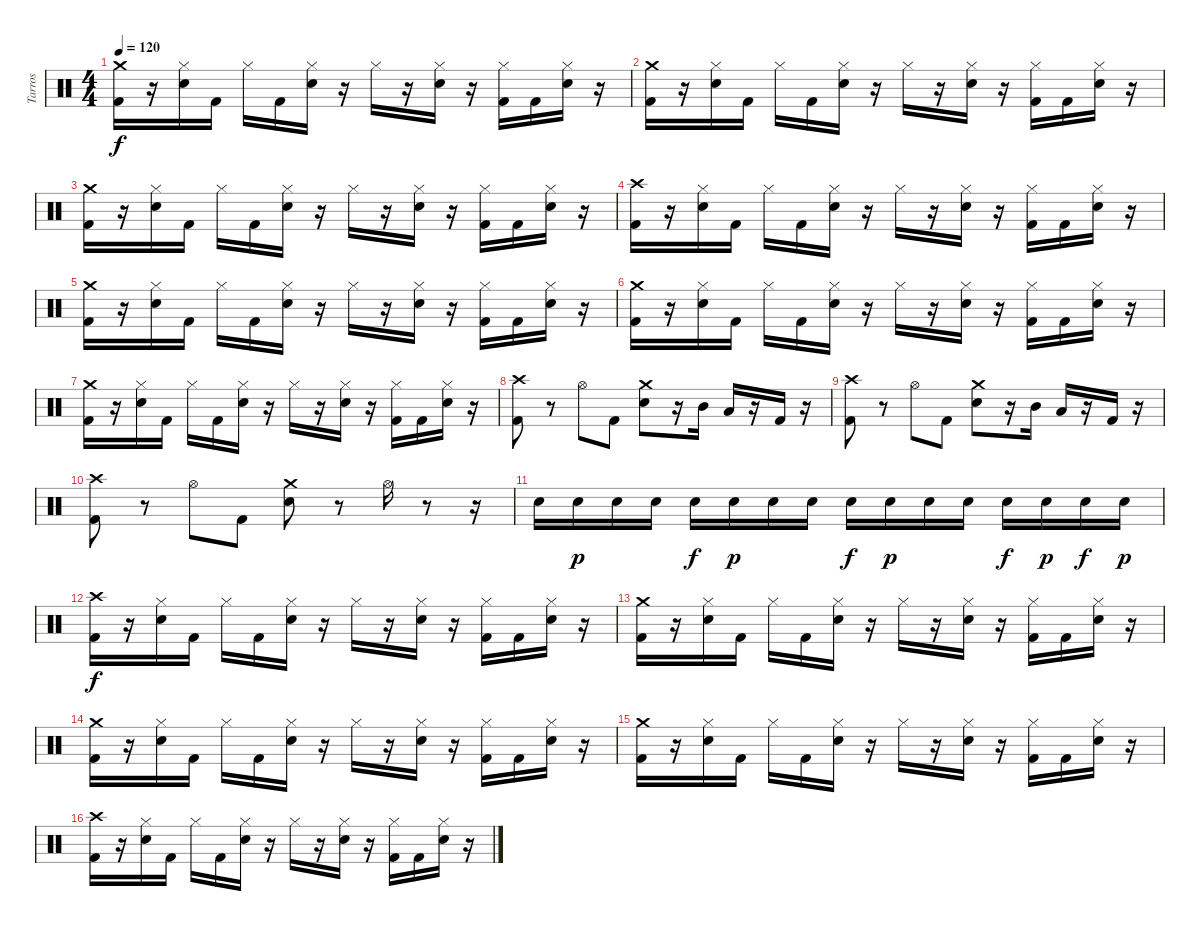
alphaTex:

\track ("Tarros" "Tarros") {instrument percussion}
\staff {score}
\articulation defaults
\ts (4 4)
\tempo 120
\clef neutral
\ks c
("Crash medium (hit)" "Kick (hit) 2").16{dy f} r.16 ("Hi-Hat (closed)" "Electric Snare (hit)").16 "Kick (hit) 2".16 "Hi-Hat (closed)".16 "Kick (hit) 2".16 ("Hi-Hat (closed)" "Electric Snare (hit)").16 r.16 "Hi-Hat (closed)".16 r.16 ("Hi-Hat (closed)" "Electric Snare (hit)").16 r.16 ("Hi-Hat (closed)" "Kick (hit) 2").16 "Kick (hit) 2".16 ("Hi-Hat (closed)" "Electric Snare (hit)").16 r.16 |
("Crash medium (hit)" "Kick (hit) 2").16 r.16 ("Hi-Hat (closed)" "Electric Snare (hit)").16 "Kick (hit) 2".16 "Hi-Hat (closed)".16 "Kick (hit) 2".16 ("Hi-Hat (closed)" "Electric Snare (hit)").16 r.16 "Hi-Hat (closed)".16 r.16 ("Hi-Hat (closed)" "Electric Snare (hit)").16 r.16 ("Hi-Hat (closed)" "Kick (hit) 2").16 "Kick (hit) 2".16 ("Hi-Hat (closed)" "Electric Snare (hit)").16 r.16 |
("Crash medium (hit)" "Kick (hit) 2").16 r.16 ("Hi-Hat (closed)" "Electric Snare (hit)").16 "Kick (hit) 2".16 "Hi-Hat (closed)".16 "Kick (hit) 2".16 ("Hi-Hat (closed)" "Electric Snare (hit)").16 r.16 "Hi-Hat (closed)".16 r.16 ("Hi-Hat (closed)" "Electric Snare (hit)").16 r.16 ("Hi-Hat (closed)" "Kick (hit) 2").16 "Kick (hit) 2".16 ("Hi-Hat (closed)" "Electric Snare (hit)").16 r.16 |
("Crash high (hit)" "Kick (hit) 2").16 r.16 ("Hi-Hat (closed)" "Electric Snare (hit)").16 "Kick (hit) 2".16 "Hi-Hat (closed)".16 "Kick (hit) 2".16 ("Hi-Hat (closed)" "Electric Snare (hit)").16 r.16 "Hi-Hat (closed)".16 r.16 ("Hi-Hat (closed)" "Electric Snare (hit)").16 r.16 ("Hi-Hat (closed)" "Kick (hit) 2").16 "Kick (hit) 2".16 ("Hi-Hat (closed)" "Electric Snare (hit)").16 r.16 |
("Crash medium (hit)" "Kick (hit) 2").16 r.16 ("Hi-Hat (closed)" "Electric Snare (hit)").16 "Kick (hit) 2".16 "Hi-Hat (closed)".16 "Kick (hit) 2".16 ("Hi-Hat (closed)" "Electric Snare (hit)").16 r.16 "Hi-Hat (closed)".16 r.16 ("Hi-Hat (closed)" "Electric Snare (hit)").16 r.16 ("Hi-Hat (closed)" "Kick (hit) 2").16 "Kick (hit) 2".16 ("Hi-Hat (closed)" "Electric Snare (hit)").16 r.16 |
("Crash medium (hit)" "Kick (hit) 2").16 r.16 ("Hi-Hat (closed)" "Electric Snare (hit)").16 "Kick (hit) 2".16 "Hi-Hat (closed)".16 "Kick (hit) 2".16 ("Hi-Hat (closed)" "Electric Snare (hit)").16 r.16 "Hi-Hat (closed)".16 r.16 ("Hi-Hat (closed)" "Electric Snare (hit)").16 r.16 ("Hi-Hat (closed)" "Kick (hit) 2").16 "Kick (hit) 2".16 ("Hi-Hat (closed)" "Electric Snare (hit)").16 r.16 |
("Crash medium (hit)" "Kick (hit) 2").16 r.16 ("Hi-Hat (closed)" "Electric Snare (hit)").16 "Kick (hit) 2".16 "Hi-Hat (closed)".16 "Kick (hit) 2".16 ("Hi-Hat (closed)" "Electric Snare (hit)").16 r.16 "Hi-Hat (closed)".16 r.16 ("Hi-Hat (closed)" "Electric Snare (hit)").16 r.16 ("Hi-Hat (closed)" "Kick (hit) 2").16 "Kick (hit) 2".16 ("Hi-Hat (closed)" "Electric Snare (hit)").16 r.16 |
("Crash high (hit)" "Kick (hit) 2").8 r.8 "Hi-Hat (open)".8 "Kick (hit) 2".8 ("Crash medium (hit)" "Electric Snare (hit)").8 r.16 "Mid Tom (hit)".16 "Low Tom (hit)".16 r.16 "Kick (hit) 2".16 r.16 |
("Crash high (hit)" "Kick (hit) 2").8 r.8 "Hi-Hat (open)".8 "Kick (hit) 2".8 ("Crash medium (hit)" "Electric Snare (hit)").8 r.16 "Mid Tom (hit)".16 "Low Tom (hit)".16 r.16 "Kick (hit) 2".16 r.16 |
("Crash high (hit)" "Kick (hit) 2").8 r.8 "Hi-Hat (open)".8 "Kick (hit) 2".8 ("Crash medium (hit)" "Electric Snare (hit)").8 r.8 "Hi-Hat (open)".16 r.8 r.16 |
"Electric Snare (hit)".16 "Electric Snare (hit)".16{dy p} "Electric Snare (hit)".16 "Electric Snare (hit)".16 "Electric Snare (hit)".16{dy f} "Electric Snare (hit)".16{dy p} "Electric Snare (hit)".16 "Electric Snare (hit)".16 "Electric Snare (hit)".16{dy f} "Electric Snare (hit)".16{dy p} "Electric Snare (hit)".16 "Electric Snare (hit)".16 "Electric Snare (hit)".16{dy f} "Electric Snare (hit)".16{dy p} "Electric Snare (hit)".16{dy f} "Electric Snare (hit)".16{dy p} |
("Crash high (hit)" "Kick (hit) 2").16{dy f} r.16 ("Hi-Hat (closed)" "Electric Snare (hit)").16 "Kick (hit) 2".16 "Hi-Hat (closed)".16 "Kick (hit) 2".16 ("Hi-Hat (closed)" "Electric Snare (hit)").16 r.16 "Hi-Hat (closed)".16 r.16 ("Hi-Hat (closed)" "Electric Snare (hit)").16 r.16 ("Hi-Hat (closed)" "Kick (hit) 2").16 "Kick (hit) 2".16 ("Hi-Hat (closed)" "Electric Snare (hit)").16 r.16 |
("Crash medium (hit)" "Kick (hit) 2").16 r.16 ("Hi-Hat (closed)" "Electric Snare (hit)").16 "Kick (hit) 2".16 "Hi-Hat (closed)".16 "Kick (hit) 2".16 ("Hi-Hat (closed)" "Electric Snare (hit)").16 r.16 "Hi-Hat (closed)".16 r.16 ("Hi-Hat (closed)" "Electric Snare (hit)").16 r.16 ("Hi-Hat (closed)" "Kick (hit) 2").16 "Kick (hit) 2".16 ("Hi-Hat (closed)" "Electric Snare (hit)").16 r.16 |
("Crash medium (hit)" "Kick (hit) 2").16 r.16 ("Hi-Hat (closed)" "Electric Snare (hit)").16 "Kick (hit) 2".16 "Hi-Hat (closed)".16 "Kick (hit) 2".16 ("Hi-Hat (closed)" "Electric Snare (hit)").16 r.16 "Hi-Hat (closed)".16 r.16 ("Hi-Hat (closed)" "Electric Snare (hit)").16 r.16 ("Hi-Hat (closed)" "Kick (hit) 2").16 "Kick (hit) 2".16 ("Hi-Hat (closed)" "Electric Snare (hit)").16 r.16 |
("Crash medium (hit)" "Kick (hit) 2").16 r.16 ("Hi-Hat (closed)" "Electric Snare (hit)").16 "Kick (hit) 2".16 "Hi-Hat (closed)".16 "Kick (hit) 2".16 ("Hi-Hat (closed)" "Electric Snare (hit)").16 r.16 "Hi-Hat (closed)".16 r.16 ("Hi-Hat (closed)" "Electric Snare (hit)").16 r.16 ("Hi-Hat (closed)" "Kick (hit) 2").16 "Kick (hit) 2".16 ("Hi-Hat (closed)" "Electric Snare (hit)").16 r.16 |
("Crash high (hit)" "Kick (hit) 2").16 r.16 ("Hi-Hat (closed)" "Electric Snare (hit)").16 "Kick (hit) 2".16 "Hi-Hat (closed)".16 "Kick (hit) 2".16 ("Hi-Hat (closed)" "Electric Snare (hit)").16 r.16 "Hi-Hat (closed)".16 r.16 ("Hi-Hat (closed)" "Electric Snare (hit)").16 r.16 ("Hi-Hat (closed)" "Kick (hit) 2").16 "Kick (hit) 2".16 ("Hi-Hat (closed)" "Electric Snare (hit)").16 r.16
